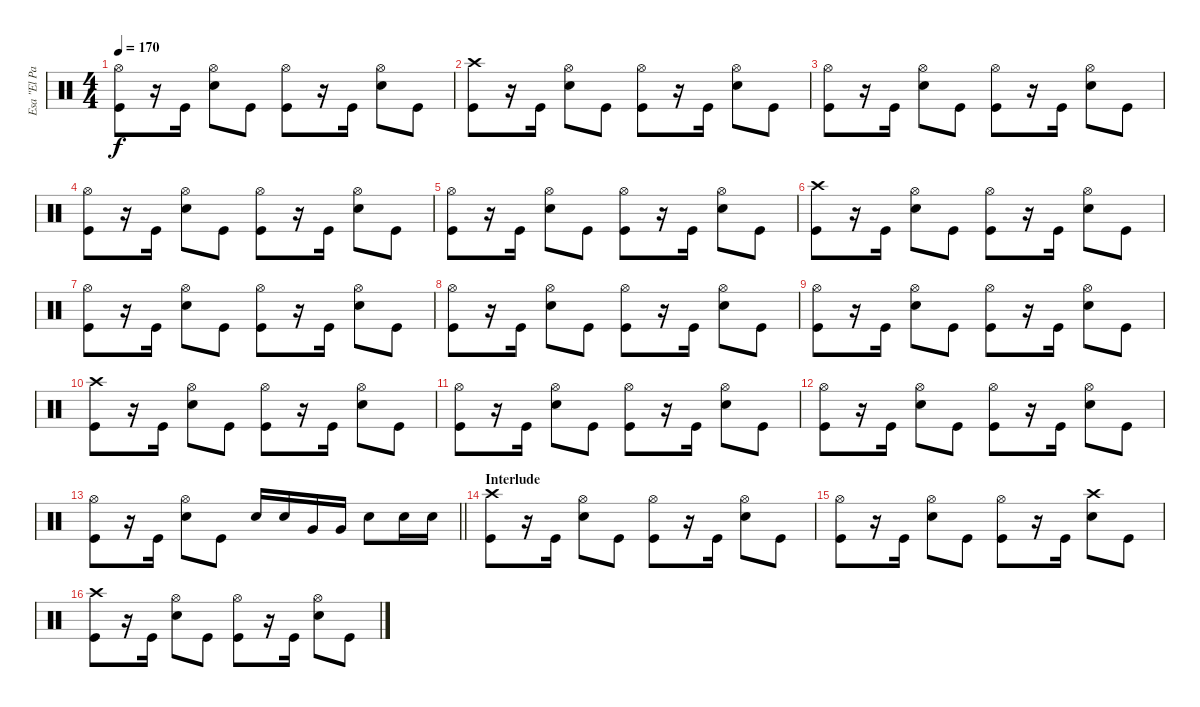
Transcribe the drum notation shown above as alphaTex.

\track ("Esa \"El Pasaderia\" Palosaari" "Esa \"El Pa") {instrument percussion}
\staff {score}
\articulation defaults
\ts (4 4)
\tempo 170
\clef neutral
\ks c
("Hi-Hat (open)" "Kick (hit)").8{dy f} r.16 "Kick (hit)".16 ("Hi-Hat (open)" "Snare (hit) 2").8 "Kick (hit)".8 ("Hi-Hat (open)" "Kick (hit)").8 r.16 "Kick (hit)".16 ("Hi-Hat (open)" "Snare (hit) 2").8 "Kick (hit)".8 |
("Crash high (hit)" "Kick (hit)").8 r.16 "Kick (hit)".16 ("Hi-Hat (open)" "Snare (hit) 2").8 "Kick (hit)".8 ("Hi-Hat (open)" "Kick (hit)").8 r.16 "Kick (hit)".16 ("Hi-Hat (open)" "Snare (hit) 2").8 "Kick (hit)".8 |
("Hi-Hat (open)" "Kick (hit)").8 r.16 "Kick (hit)".16 ("Hi-Hat (open)" "Snare (hit) 2").8 "Kick (hit)".8 ("Hi-Hat (open)" "Kick (hit)").8 r.16 "Kick (hit)".16 ("Hi-Hat (open)" "Snare (hit) 2").8 "Kick (hit)".8 |
("Hi-Hat (open)" "Kick (hit)").8 r.16 "Kick (hit)".16 ("Hi-Hat (open)" "Snare (hit) 2").8 "Kick (hit)".8 ("Hi-Hat (open)" "Kick (hit)").8 r.16 "Kick (hit)".16 ("Hi-Hat (open)" "Snare (hit) 2").8 "Kick (hit)".8 |
("Hi-Hat (open)" "Kick (hit)").8 r.16 "Kick (hit)".16 ("Hi-Hat (open)" "Snare (hit) 2").8 "Kick (hit)".8 ("Hi-Hat (open)" "Kick (hit)").8 r.16 "Kick (hit)".16 ("Hi-Hat (open)" "Snare (hit) 2").8 "Kick (hit)".8 |
("Crash high (hit)" "Kick (hit)").8 r.16 "Kick (hit)".16 ("Hi-Hat (open)" "Snare (hit) 2").8 "Kick (hit)".8 ("Hi-Hat (open)" "Kick (hit)").8 r.16 "Kick (hit)".16 ("Hi-Hat (open)" "Snare (hit) 2").8 "Kick (hit)".8 |
("Hi-Hat (open)" "Kick (hit)").8 r.16 "Kick (hit)".16 ("Hi-Hat (open)" "Snare (hit) 2").8 "Kick (hit)".8 ("Hi-Hat (open)" "Kick (hit)").8 r.16 "Kick (hit)".16 ("Hi-Hat (open)" "Snare (hit) 2").8 "Kick (hit)".8 |
("Hi-Hat (open)" "Kick (hit)").8 r.16 "Kick (hit)".16 ("Hi-Hat (open)" "Snare (hit) 2").8 "Kick (hit)".8 ("Hi-Hat (open)" "Kick (hit)").8 r.16 "Kick (hit)".16 ("Hi-Hat (open)" "Snare (hit) 2").8 "Kick (hit)".8 |
("Hi-Hat (open)" "Kick (hit)").8 r.16 "Kick (hit)".16 ("Hi-Hat (open)" "Snare (hit) 2").8 "Kick (hit)".8 ("Hi-Hat (open)" "Kick (hit)").8 r.16 "Kick (hit)".16 ("Hi-Hat (open)" "Snare (hit) 2").8 "Kick (hit)".8 |
("Crash high (hit)" "Kick (hit)").8 r.16 "Kick (hit)".16 ("Hi-Hat (open)" "Snare (hit) 2").8 "Kick (hit)".8 ("Hi-Hat (open)" "Kick (hit)").8 r.16 "Kick (hit)".16 ("Hi-Hat (open)" "Snare (hit) 2").8 "Kick (hit)".8 |
("Hi-Hat (open)" "Kick (hit)").8 r.16 "Kick (hit)".16 ("Hi-Hat (open)" "Snare (hit) 2").8 "Kick (hit)".8 ("Hi-Hat (open)" "Kick (hit)").8 r.16 "Kick (hit)".16 ("Hi-Hat (open)" "Snare (hit) 2").8 "Kick (hit)".8 |
("Hi-Hat (open)" "Kick (hit)").8 r.16 "Kick (hit)".16 ("Hi-Hat (open)" "Snare (hit) 2").8 "Kick (hit)".8 ("Hi-Hat (open)" "Kick (hit)").8 r.16 "Kick (hit)".16 ("Hi-Hat (open)" "Snare (hit) 2").8 "Kick (hit)".8 |
\barLineRight lightlight
("Hi-Hat (open)" "Kick (hit)").8 r.16 "Kick (hit)".16 ("Hi-Hat (open)" "Snare (hit) 2").8 "Kick (hit)".8 "Snare (hit) 2".16 "Snare (hit) 2".16 "Very Low Tom (hit)".16 "Very Low Tom (hit)".16 "Snare (hit) 2".8 "Snare (hit) 2".16 "Snare (hit) 2".16 |
\section ("" "Interlude")
("Crash high (hit)" "Kick (hit)").8 r.16 "Kick (hit)".16 ("Hi-Hat (open)" "Snare (hit) 2").8 "Kick (hit)".8 ("Hi-Hat (open)" "Kick (hit)").8 r.16 "Kick (hit)".16 ("Hi-Hat (open)" "Snare (hit) 2").8 "Kick (hit)".8 |
("Hi-Hat (open)" "Kick (hit)").8 r.16 "Kick (hit)".16 ("Hi-Hat (open)" "Snare (hit) 2").8 "Kick (hit)".8 ("Hi-Hat (open)" "Kick (hit)").8 r.16 "Kick (hit)".16 ("Crash high (hit)" "Snare (hit) 2").8 "Kick (hit)".8 |
("Crash high (hit)" "Kick (hit)").8 r.16 "Kick (hit)".16 ("Hi-Hat (open)" "Snare (hit) 2").8 "Kick (hit)".8 ("Hi-Hat (open)" "Kick (hit)").8 r.16 "Kick (hit)".16 ("Hi-Hat (open)" "Snare (hit) 2").8 "Kick (hit)".8
